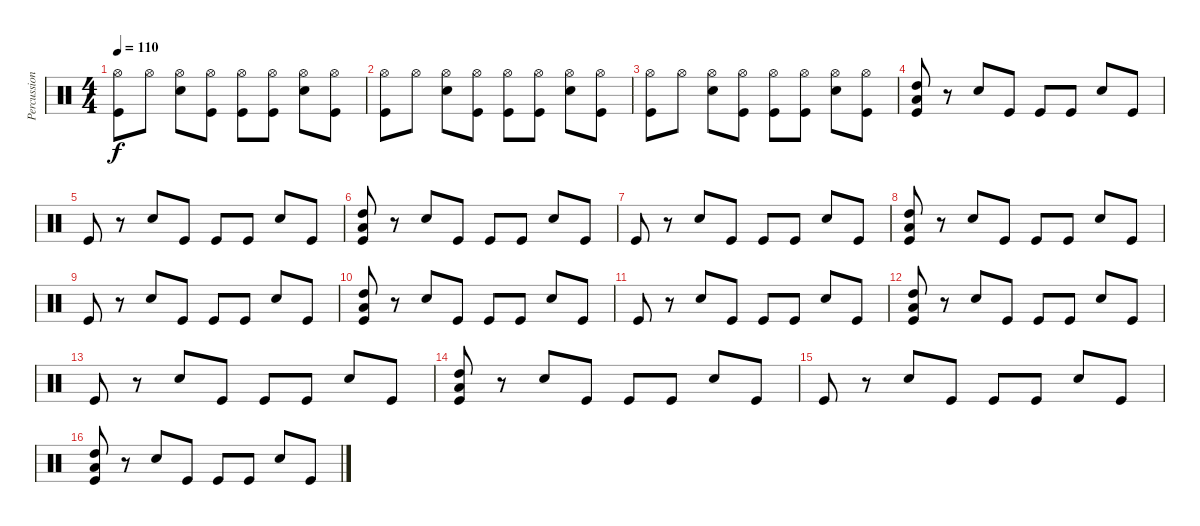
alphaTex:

\track ("Percussion" "Percussion") {instrument percussion}
\staff {score}
\articulation defaults
\ts (4 4)
\tempo 110
\clef neutral
\ks c
("Hi-Hat (open)" "Kick (hit)").8{dy f} "Hi-Hat (open)".8 ("Snare (hit) 2" "Hi-Hat (open)").8 ("Hi-Hat (open)" "Kick (hit)").8 ("Hi-Hat (open)" "Kick (hit)").8 ("Hi-Hat (open)" "Kick (hit)").8 ("Snare (hit) 2" "Hi-Hat (open)").8 ("Hi-Hat (open)" "Kick (hit)").8 |
("Hi-Hat (open)" "Kick (hit)").8 "Hi-Hat (open)".8 ("Snare (hit) 2" "Hi-Hat (open)").8 ("Hi-Hat (open)" "Kick (hit)").8 ("Hi-Hat (open)" "Kick (hit)").8 ("Hi-Hat (open)" "Kick (hit)").8 ("Snare (hit) 2" "Hi-Hat (open)").8 ("Hi-Hat (open)" "Kick (hit)").8 |
("Hi-Hat (open)" "Kick (hit)").8 "Hi-Hat (open)".8 ("Snare (hit) 2" "Hi-Hat (open)").8 ("Hi-Hat (open)" "Kick (hit)").8 ("Hi-Hat (open)" "Kick (hit)").8 ("Hi-Hat (open)" "Kick (hit)").8 ("Snare (hit) 2" "Hi-Hat (open)").8 ("Hi-Hat (open)" "Kick (hit)").8 |
("Kick (hit)" "Low Tom (hit)" "High Tom (hit)").8 r.8 "Snare (hit) 2".8 "Kick (hit)".8 "Kick (hit)".8 "Kick (hit)".8 "Snare (hit) 2".8 "Kick (hit)".8 |
"Kick (hit)".8 r.8 "Snare (hit) 2".8 "Kick (hit)".8 "Kick (hit)".8 "Kick (hit)".8 "Snare (hit) 2".8 "Kick (hit)".8 |
("Kick (hit)" "Low Tom (hit)" "High Tom (hit)").8 r.8 "Snare (hit) 2".8 "Kick (hit)".8 "Kick (hit)".8 "Kick (hit)".8 "Snare (hit) 2".8 "Kick (hit)".8 |
"Kick (hit)".8 r.8 "Snare (hit) 2".8 "Kick (hit)".8 "Kick (hit)".8 "Kick (hit)".8 "Snare (hit) 2".8 "Kick (hit)".8 |
("Kick (hit)" "Low Tom (hit)" "High Tom (hit)").8 r.8 "Snare (hit) 2".8 "Kick (hit)".8 "Kick (hit)".8 "Kick (hit)".8 "Snare (hit) 2".8 "Kick (hit)".8 |
"Kick (hit)".8 r.8 "Snare (hit) 2".8 "Kick (hit)".8 "Kick (hit)".8 "Kick (hit)".8 "Snare (hit) 2".8 "Kick (hit)".8 |
("Kick (hit)" "Low Tom (hit)" "High Tom (hit)").8 r.8 "Snare (hit) 2".8 "Kick (hit)".8 "Kick (hit)".8 "Kick (hit)".8 "Snare (hit) 2".8 "Kick (hit)".8 |
"Kick (hit)".8 r.8 "Snare (hit) 2".8 "Kick (hit)".8 "Kick (hit)".8 "Kick (hit)".8 "Snare (hit) 2".8 "Kick (hit)".8 |
("Kick (hit)" "Low Tom (hit)" "High Tom (hit)").8 r.8 "Snare (hit) 2".8 "Kick (hit)".8 "Kick (hit)".8 "Kick (hit)".8 "Snare (hit) 2".8 "Kick (hit)".8 |
"Kick (hit)".8 r.8 "Snare (hit) 2".8 "Kick (hit)".8 "Kick (hit)".8 "Kick (hit)".8 "Snare (hit) 2".8 "Kick (hit)".8 |
("Kick (hit)" "Low Tom (hit)" "High Tom (hit)").8 r.8 "Snare (hit) 2".8 "Kick (hit)".8 "Kick (hit)".8 "Kick (hit)".8 "Snare (hit) 2".8 "Kick (hit)".8 |
"Kick (hit)".8 r.8 "Snare (hit) 2".8 "Kick (hit)".8 "Kick (hit)".8 "Kick (hit)".8 "Snare (hit) 2".8 "Kick (hit)".8 |
("Kick (hit)" "Low Tom (hit)" "High Tom (hit)").8 r.8 "Snare (hit) 2".8 "Kick (hit)".8 "Kick (hit)".8 "Kick (hit)".8 "Snare (hit) 2".8 "Kick (hit)".8
